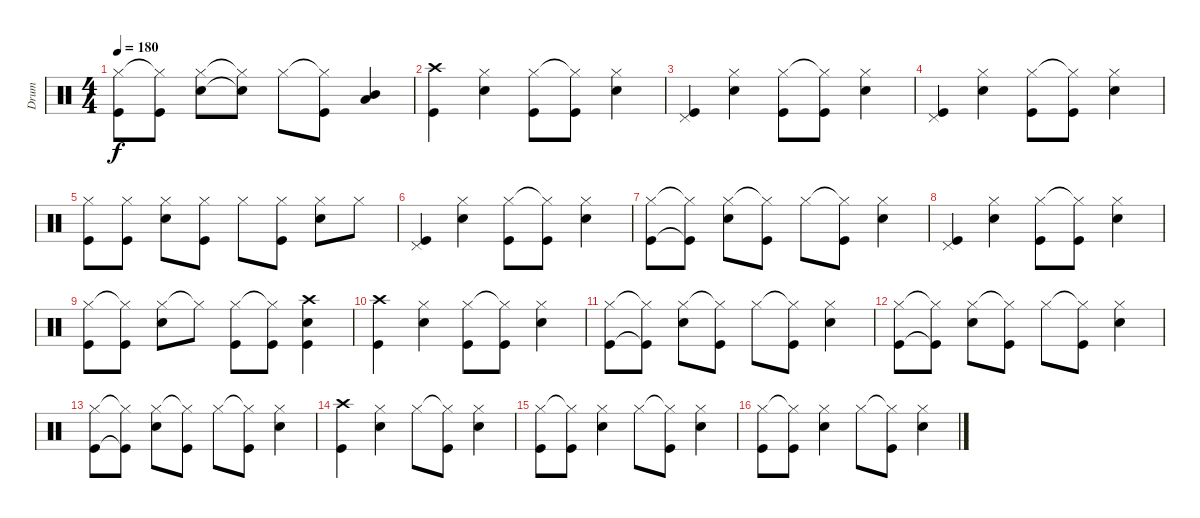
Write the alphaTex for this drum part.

\track ("Drum" "Drum") {instrument percussion}
\staff {score}
\articulation defaults
\ts (4 4)
\tempo 180
\clef neutral
\ks c
("Hi-Hat (closed)" "Kick (hit)").8{dy f} ("Hi-Hat (closed)"{t} "Kick (hit)").8 ("Hi-Hat (closed)" "Snare (hit) 2").8 ("Hi-Hat (closed)"{t} "Snare (hit) 2"{t}).8 "Hi-Hat (closed)".8 ("Hi-Hat (closed)"{t} "Kick (hit)").8 ("Mid Tom (hit)" "Low Tom (hit)").4 |
("Crash high (hit)" "Kick (hit)").4 ("Hi-Hat (closed)" "Snare (hit) 2").4 ("Hi-Hat (closed)" "Kick (hit)").8 ("Hi-Hat (closed)"{t} "Kick (hit)").8 ("Hi-Hat (closed)" "Snare (hit) 2").4 |
("Pedal Hi-Hat (hit)" "Kick (hit)").4 ("Hi-Hat (closed)" "Snare (hit) 2").4 ("Hi-Hat (closed)" "Kick (hit)").8 ("Hi-Hat (closed)"{t} "Kick (hit)").8 ("Hi-Hat (closed)" "Snare (hit) 2").4 |
("Pedal Hi-Hat (hit)" "Kick (hit)").4 ("Hi-Hat (closed)" "Snare (hit) 2").4 ("Hi-Hat (closed)" "Kick (hit)").8 ("Hi-Hat (closed)"{t} "Kick (hit)").8 ("Hi-Hat (closed)" "Snare (hit) 2").4 |
("Hi-Hat (closed)" "Kick (hit)").8 ("Hi-Hat (closed)" "Kick (hit)").8 ("Hi-Hat (closed)" "Snare (hit) 2").8 ("Hi-Hat (closed)" "Kick (hit)").8 "Hi-Hat (closed)".8 ("Hi-Hat (closed)" "Kick (hit)").8 ("Hi-Hat (closed)" "Snare (hit) 2").8 "Hi-Hat (closed)".8 |
("Pedal Hi-Hat (hit)" "Kick (hit)").4 ("Hi-Hat (closed)" "Snare (hit) 2").4 ("Hi-Hat (closed)" "Kick (hit)").8 ("Hi-Hat (closed)"{t} "Kick (hit)").8 ("Hi-Hat (closed)" "Snare (hit) 2").4 |
("Hi-Hat (closed)" "Kick (hit)").8 ("Hi-Hat (closed)"{t} "Kick (hit)"{t}).8 ("Hi-Hat (closed)" "Snare (hit) 2").8 ("Hi-Hat (closed)"{t} "Kick (hit)").8 "Hi-Hat (closed)".8 ("Hi-Hat (closed)"{t} "Kick (hit)").8 ("Hi-Hat (closed)" "Snare (hit) 2").4 |
("Pedal Hi-Hat (hit)" "Kick (hit)").4 ("Hi-Hat (closed)" "Snare (hit) 2").4 ("Hi-Hat (closed)" "Kick (hit)").8 ("Hi-Hat (closed)"{t} "Kick (hit)").8 ("Hi-Hat (closed)" "Snare (hit) 2").4 |
("Hi-Hat (closed)" "Kick (hit)").8 ("Hi-Hat (closed)"{t} "Kick (hit)").8 ("Hi-Hat (closed)" "Snare (hit) 2").8 "Hi-Hat (closed)"{t}.8 ("Hi-Hat (closed)" "Kick (hit)").8 ("Hi-Hat (closed)"{t} "Kick (hit)").8 ("Crash high (hit)" "Snare (hit) 2" "Kick (hit)").4 |
("Crash high (hit)" "Kick (hit)").4 ("Hi-Hat (closed)" "Snare (hit) 2").4 ("Hi-Hat (closed)" "Kick (hit)").8 ("Hi-Hat (closed)"{t} "Kick (hit)").8 ("Hi-Hat (closed)" "Snare (hit) 2").4 |
("Hi-Hat (closed)" "Kick (hit)").8 ("Hi-Hat (closed)"{t} "Kick (hit)"{t}).8 ("Hi-Hat (closed)" "Snare (hit) 2").8 ("Hi-Hat (closed)"{t} "Kick (hit)").8 "Hi-Hat (closed)".8 ("Hi-Hat (closed)"{t} "Kick (hit)").8 ("Hi-Hat (closed)" "Snare (hit) 2").4 |
("Hi-Hat (closed)" "Kick (hit)").8 ("Hi-Hat (closed)"{t} "Kick (hit)"{t}).8 ("Hi-Hat (closed)" "Snare (hit) 2").8 ("Hi-Hat (closed)"{t} "Kick (hit)").8 "Hi-Hat (closed)".8 ("Hi-Hat (closed)"{t} "Kick (hit)").8 ("Hi-Hat (closed)" "Snare (hit) 2").4 |
("Hi-Hat (closed)" "Kick (hit)").8 ("Hi-Hat (closed)"{t} "Kick (hit)"{t}).8 ("Hi-Hat (closed)" "Snare (hit) 2").8 ("Hi-Hat (closed)"{t} "Kick (hit)").8 "Hi-Hat (closed)".8 ("Hi-Hat (closed)"{t} "Kick (hit)").8 ("Hi-Hat (closed)" "Snare (hit) 2").4 |
("Crash high (hit)" "Kick (hit)").4 ("Hi-Hat (closed)" "Snare (hit) 2").4 "Hi-Hat (closed)".8 ("Hi-Hat (closed)"{t} "Kick (hit)").8 ("Hi-Hat (closed)" "Snare (hit) 2").4 |
("Hi-Hat (closed)" "Kick (hit)").8 ("Hi-Hat (closed)"{t} "Kick (hit)").8 ("Hi-Hat (closed)" "Snare (hit) 2").4 "Hi-Hat (closed)".8 ("Hi-Hat (closed)"{t} "Kick (hit)").8 ("Hi-Hat (closed)" "Snare (hit) 2").4 |
("Hi-Hat (closed)" "Kick (hit)").8 ("Hi-Hat (closed)"{t} "Kick (hit)").8 ("Hi-Hat (closed)" "Snare (hit) 2").4 "Hi-Hat (closed)".8 ("Hi-Hat (closed)"{t} "Kick (hit)").8 ("Hi-Hat (closed)" "Snare (hit) 2").4
